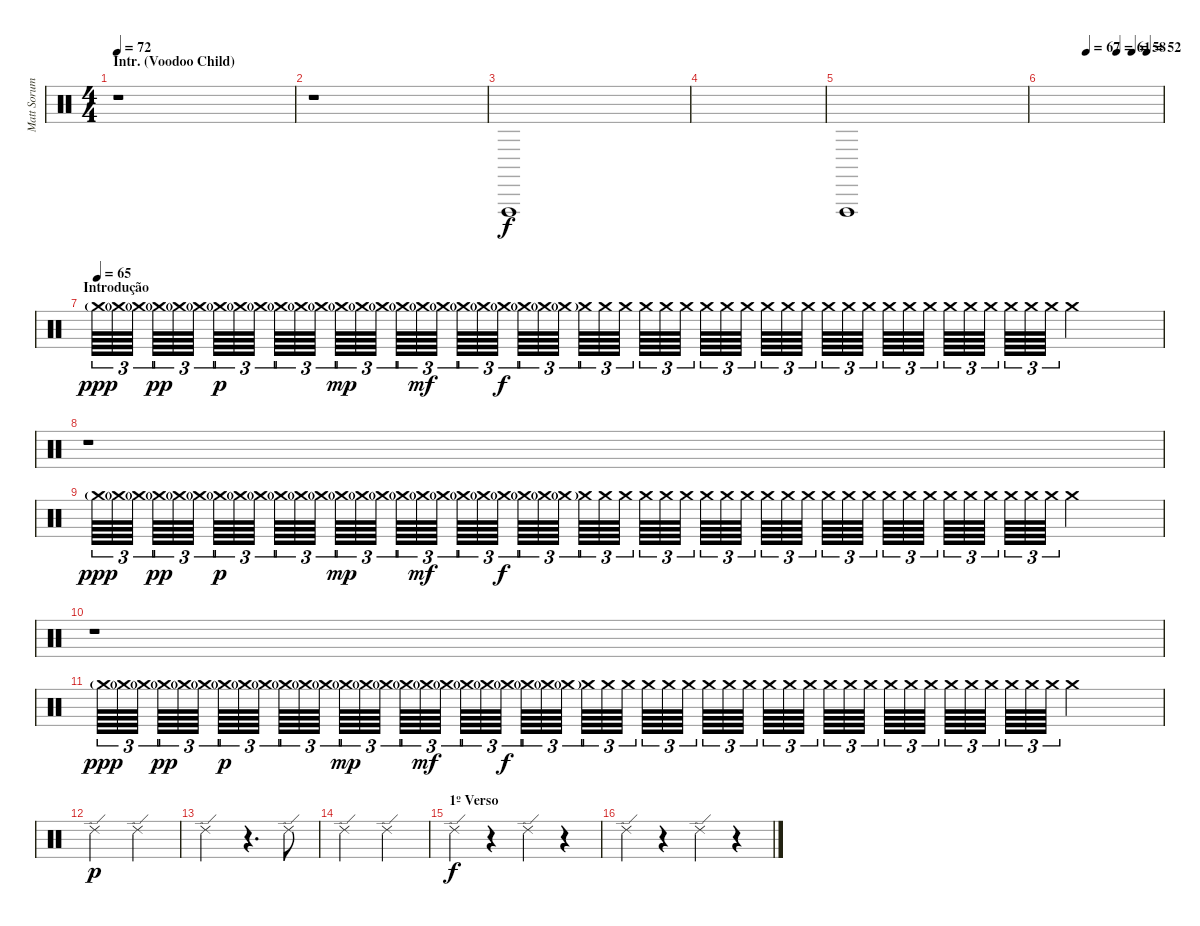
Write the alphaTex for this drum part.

\track ("Matt Sorum" "Matt Sorum") {instrument percussion}
\staff {score}
\articulation defaults
\ts (4 4)
\section ("" "Intr. (Voodoo Child)")
\tempo 72
\tempo 68
\tempo 72
\clef neutral
\ks c
r.1{dy f} |
r.1 |
"Vibraslap (hit)".1 |
|
"Vibraslap (hit)".1 |
\tempo (67 0.375)
\tempo (61 0.625)
\tempo (58 0.75)
\tempo (52 0.875)
|
\section ("" "Introdução")
\tempo (65)
"Crash medium (hit)"{g}.64{tu (3 2) dy ppp} "Crash medium (hit)"{g}.64{tu (3 2)} "Crash medium (hit)"{g}.64{tu (3 2)} "Crash medium (hit)"{g}.64{tu (3 2) dy pp} "Crash medium (hit)"{g}.64{tu (3 2)} "Crash medium (hit)"{g}.64{tu (3 2)} "Crash medium (hit)"{g}.64{tu (3 2) dy p} "Crash medium (hit)"{g}.64{tu (3 2)} "Crash medium (hit)"{g}.64{tu (3 2)} "Crash medium (hit)"{g}.64{tu (3 2)} "Crash medium (hit)"{g}.64{tu (3 2)} "Crash medium (hit)"{g}.64{tu (3 2)} "Crash medium (hit)"{g}.64{tu (3 2) dy mp} "Crash medium (hit)"{g}.64{tu (3 2)} "Crash medium (hit)"{g}.64{tu (3 2)} "Crash medium (hit)"{g}.64{tu (3 2)} "Crash medium (hit)"{g}.64{tu (3 2) dy mf} "Crash medium (hit)"{g}.64{tu (3 2)} "Crash medium (hit)"{g}.64{tu (3 2)} "Crash medium (hit)"{g}.64{tu (3 2)} "Crash medium (hit)"{g}.64{tu (3 2) dy f} "Crash medium (hit)"{g}.64{tu (3 2)} "Crash medium (hit)"{g}.64{tu (3 2)} "Crash medium (hit)"{g}.64{tu (3 2)} "Crash medium (hit)".64{tu (3 2)} "Crash medium (hit)".64{tu (3 2)} "Crash medium (hit)".64{tu (3 2)} "Crash medium (hit)".64{tu (3 2)} "Crash medium (hit)".64{tu (3 2)} "Crash medium (hit)".64{tu (3 2)} "Crash medium (hit)".64{tu (3 2)} "Crash medium (hit)".64{tu (3 2)} "Crash medium (hit)".64{tu (3 2)} "Crash medium (hit)".64{tu (3 2)} "Crash medium (hit)".64{tu (3 2)} "Crash medium (hit)".64{tu (3 2)} "Crash medium (hit)".64{tu (3 2)} "Crash medium (hit)".64{tu (3 2)} "Crash medium (hit)".64{tu (3 2)} "Crash medium (hit)".64{tu (3 2)} "Crash medium (hit)".64{tu (3 2)} "Crash medium (hit)".64{tu (3 2)} "Crash medium (hit)".64{tu (3 2)} "Crash medium (hit)".64{tu (3 2)} "Crash medium (hit)".64{tu (3 2)} "Crash medium (hit)".64{tu (3 2)} "Crash medium (hit)".64{tu (3 2)} "Crash medium (hit)".64{tu (3 2)} "Crash medium (hit)".2 |
r.1 |
"Crash medium (hit)"{g}.64{tu (3 2) dy ppp} "Crash medium (hit)"{g}.64{tu (3 2)} "Crash medium (hit)"{g}.64{tu (3 2)} "Crash medium (hit)"{g}.64{tu (3 2) dy pp} "Crash medium (hit)"{g}.64{tu (3 2)} "Crash medium (hit)"{g}.64{tu (3 2)} "Crash medium (hit)"{g}.64{tu (3 2) dy p} "Crash medium (hit)"{g}.64{tu (3 2)} "Crash medium (hit)"{g}.64{tu (3 2)} "Crash medium (hit)"{g}.64{tu (3 2)} "Crash medium (hit)"{g}.64{tu (3 2)} "Crash medium (hit)"{g}.64{tu (3 2)} "Crash medium (hit)"{g}.64{tu (3 2) dy mp} "Crash medium (hit)"{g}.64{tu (3 2)} "Crash medium (hit)"{g}.64{tu (3 2)} "Crash medium (hit)"{g}.64{tu (3 2)} "Crash medium (hit)"{g}.64{tu (3 2) dy mf} "Crash medium (hit)"{g}.64{tu (3 2)} "Crash medium (hit)"{g}.64{tu (3 2)} "Crash medium (hit)"{g}.64{tu (3 2)} "Crash medium (hit)"{g}.64{tu (3 2) dy f} "Crash medium (hit)"{g}.64{tu (3 2)} "Crash medium (hit)"{g}.64{tu (3 2)} "Crash medium (hit)"{g}.64{tu (3 2)} "Crash medium (hit)".64{tu (3 2)} "Crash medium (hit)".64{tu (3 2)} "Crash medium (hit)".64{tu (3 2)} "Crash medium (hit)".64{tu (3 2)} "Crash medium (hit)".64{tu (3 2)} "Crash medium (hit)".64{tu (3 2)} "Crash medium (hit)".64{tu (3 2)} "Crash medium (hit)".64{tu (3 2)} "Crash medium (hit)".64{tu (3 2)} "Crash medium (hit)".64{tu (3 2)} "Crash medium (hit)".64{tu (3 2)} "Crash medium (hit)".64{tu (3 2)} "Crash medium (hit)".64{tu (3 2)} "Crash medium (hit)".64{tu (3 2)} "Crash medium (hit)".64{tu (3 2)} "Crash medium (hit)".64{tu (3 2)} "Crash medium (hit)".64{tu (3 2)} "Crash medium (hit)".64{tu (3 2)} "Crash medium (hit)".64{tu (3 2)} "Crash medium (hit)".64{tu (3 2)} "Crash medium (hit)".64{tu (3 2)} "Crash medium (hit)".64{tu (3 2)} "Crash medium (hit)".64{tu (3 2)} "Crash medium (hit)".64{tu (3 2)} "Crash medium (hit)".2 |
r.1 |
"Crash medium (hit)"{g}.64{tu (3 2) dy ppp} "Crash medium (hit)"{g}.64{tu (3 2)} "Crash medium (hit)"{g}.64{tu (3 2)} "Crash medium (hit)"{g}.64{tu (3 2) dy pp} "Crash medium (hit)"{g}.64{tu (3 2)} "Crash medium (hit)"{g}.64{tu (3 2)} "Crash medium (hit)"{g}.64{tu (3 2) dy p} "Crash medium (hit)"{g}.64{tu (3 2)} "Crash medium (hit)"{g}.64{tu (3 2)} "Crash medium (hit)"{g}.64{tu (3 2)} "Crash medium (hit)"{g}.64{tu (3 2)} "Crash medium (hit)"{g}.64{tu (3 2)} "Crash medium (hit)"{g}.64{tu (3 2) dy mp} "Crash medium (hit)"{g}.64{tu (3 2)} "Crash medium (hit)"{g}.64{tu (3 2)} "Crash medium (hit)"{g}.64{tu (3 2)} "Crash medium (hit)"{g}.64{tu (3 2) dy mf} "Crash medium (hit)"{g}.64{tu (3 2)} "Crash medium (hit)"{g}.64{tu (3 2)} "Crash medium (hit)"{g}.64{tu (3 2)} "Crash medium (hit)"{g}.64{tu (3 2) dy f} "Crash medium (hit)"{g}.64{tu (3 2)} "Crash medium (hit)"{g}.64{tu (3 2)} "Crash medium (hit)"{g}.64{tu (3 2)} "Crash medium (hit)".64{tu (3 2)} "Crash medium (hit)".64{tu (3 2)} "Crash medium (hit)".64{tu (3 2)} "Crash medium (hit)".64{tu (3 2)} "Crash medium (hit)".64{tu (3 2)} "Crash medium (hit)".64{tu (3 2)} "Crash medium (hit)".64{tu (3 2)} "Crash medium (hit)".64{tu (3 2)} "Crash medium (hit)".64{tu (3 2)} "Crash medium (hit)".64{tu (3 2)} "Crash medium (hit)".64{tu (3 2)} "Crash medium (hit)".64{tu (3 2)} "Crash medium (hit)".64{tu (3 2)} "Crash medium (hit)".64{tu (3 2)} "Crash medium (hit)".64{tu (3 2)} "Crash medium (hit)".64{tu (3 2)} "Crash medium (hit)".64{tu (3 2)} "Crash medium (hit)".64{tu (3 2)} "Crash medium (hit)".64{tu (3 2)} "Crash medium (hit)".64{tu (3 2)} "Crash medium (hit)".64{tu (3 2)} "Crash medium (hit)".64{tu (3 2)} "Crash medium (hit)".64{tu (3 2)} "Crash medium (hit)".64{tu (3 2)} "Crash medium (hit)".2 |
"Ride (edge) 2".2{dy p} "Ride (edge) 2".2 |
"Ride (edge) 2".2 r.4{d} "Ride (edge) 2".8 |
"Ride (edge) 2".2 "Ride (edge) 2".2 |
\section ("" "1º Verso")
"Ride (edge) 2".4{dy f} r.4 "Ride (edge) 2".4 r.4 |
"Ride (edge) 2".4 r.4 "Ride (edge) 2".4 r.4
